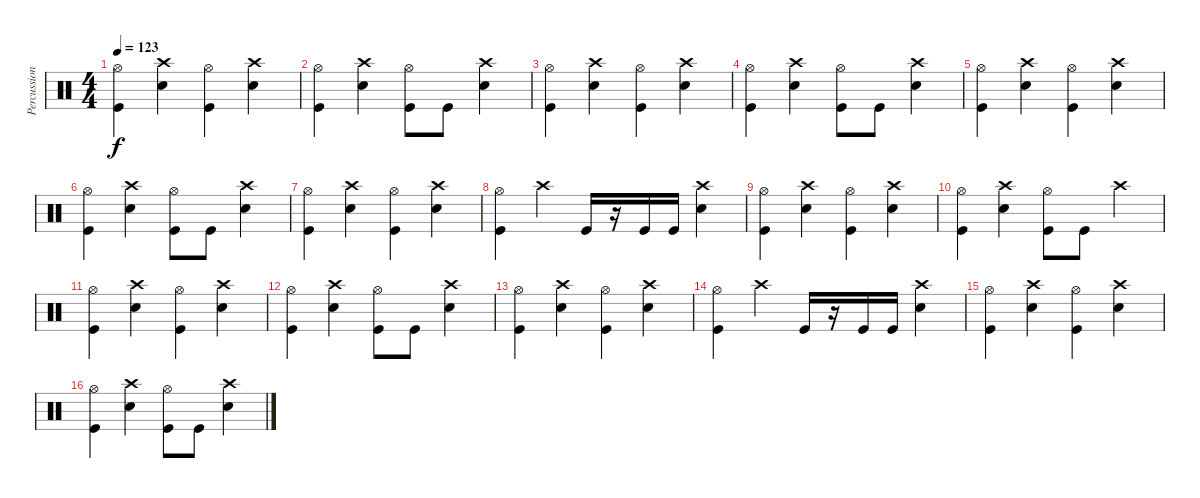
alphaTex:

\track ("Percussion" "Percussion") {instrument percussion}
\staff {score}
\articulation defaults
\ts (4 4)
\tempo 123
\clef neutral
\ks c
("Hi-Hat (open)" "Kick (hit)").4{dy f} ("Crash high (hit)" "Snare (hit) 2").4 ("Hi-Hat (open)" "Kick (hit)").4 ("Crash high (hit)" "Snare (hit) 2").4 |
("Hi-Hat (open)" "Kick (hit)").4 ("Crash high (hit)" "Snare (hit) 2").4 ("Hi-Hat (open)" "Kick (hit)").8 "Kick (hit)".8 ("Crash high (hit)" "Snare (hit) 2").4 |
("Hi-Hat (open)" "Kick (hit)").4 ("Crash high (hit)" "Snare (hit) 2").4 ("Hi-Hat (open)" "Kick (hit)").4 ("Crash high (hit)" "Snare (hit) 2").4 |
("Hi-Hat (open)" "Kick (hit)").4 ("Crash high (hit)" "Snare (hit) 2").4 ("Hi-Hat (open)" "Kick (hit)").8 "Kick (hit)".8 ("Crash high (hit)" "Snare (hit) 2").4 |
("Hi-Hat (open)" "Kick (hit)").4 ("Crash high (hit)" "Snare (hit) 2").4 ("Hi-Hat (open)" "Kick (hit)").4 ("Crash high (hit)" "Snare (hit) 2").4 |
("Hi-Hat (open)" "Kick (hit)").4 ("Crash high (hit)" "Snare (hit) 2").4 ("Hi-Hat (open)" "Kick (hit)").8 "Kick (hit)".8 ("Crash high (hit)" "Snare (hit) 2").4 |
("Hi-Hat (open)" "Kick (hit)").4 ("Crash high (hit)" "Snare (hit) 2").4 ("Hi-Hat (open)" "Kick (hit)").4 ("Crash high (hit)" "Snare (hit) 2").4 |
("Hi-Hat (open)" "Kick (hit)").4 "Crash high (hit)".4 "Kick (hit)".16 r.16 "Kick (hit)".16 "Kick (hit)".16 ("Crash high (hit)" "Snare (hit) 2").4 |
("Hi-Hat (open)" "Kick (hit)").4 ("Crash high (hit)" "Snare (hit) 2").4 ("Hi-Hat (open)" "Kick (hit)").4 ("Crash high (hit)" "Snare (hit) 2").4 |
("Hi-Hat (open)" "Kick (hit)").4 ("Crash high (hit)" "Snare (hit) 2").4 ("Hi-Hat (open)" "Kick (hit)").8 "Kick (hit)".8 "Crash high (hit)".4 |
("Hi-Hat (open)" "Kick (hit)").4 ("Crash high (hit)" "Snare (hit) 2").4 ("Hi-Hat (open)" "Kick (hit)").4 ("Crash high (hit)" "Snare (hit) 2").4 |
("Hi-Hat (open)" "Kick (hit)").4 ("Crash high (hit)" "Snare (hit) 2").4 ("Hi-Hat (open)" "Kick (hit)").8 "Kick (hit)".8 ("Crash high (hit)" "Snare (hit) 2").4 |
("Hi-Hat (open)" "Kick (hit)").4 ("Crash high (hit)" "Snare (hit) 2").4 ("Hi-Hat (open)" "Kick (hit)").4 ("Crash high (hit)" "Snare (hit) 2").4 |
("Hi-Hat (open)" "Kick (hit)").4 "Crash high (hit)".4 "Kick (hit)".16 r.16 "Kick (hit)".16 "Kick (hit)".16 ("Crash high (hit)" "Snare (hit) 2").4 |
("Hi-Hat (open)" "Kick (hit)").4 ("Crash high (hit)" "Snare (hit) 2").4 ("Hi-Hat (open)" "Kick (hit)").4 ("Crash high (hit)" "Snare (hit) 2").4 |
("Hi-Hat (open)" "Kick (hit)").4 ("Crash high (hit)" "Snare (hit) 2").4 ("Hi-Hat (open)" "Kick (hit)").8 "Kick (hit)".8 ("Crash high (hit)" "Snare (hit) 2").4
